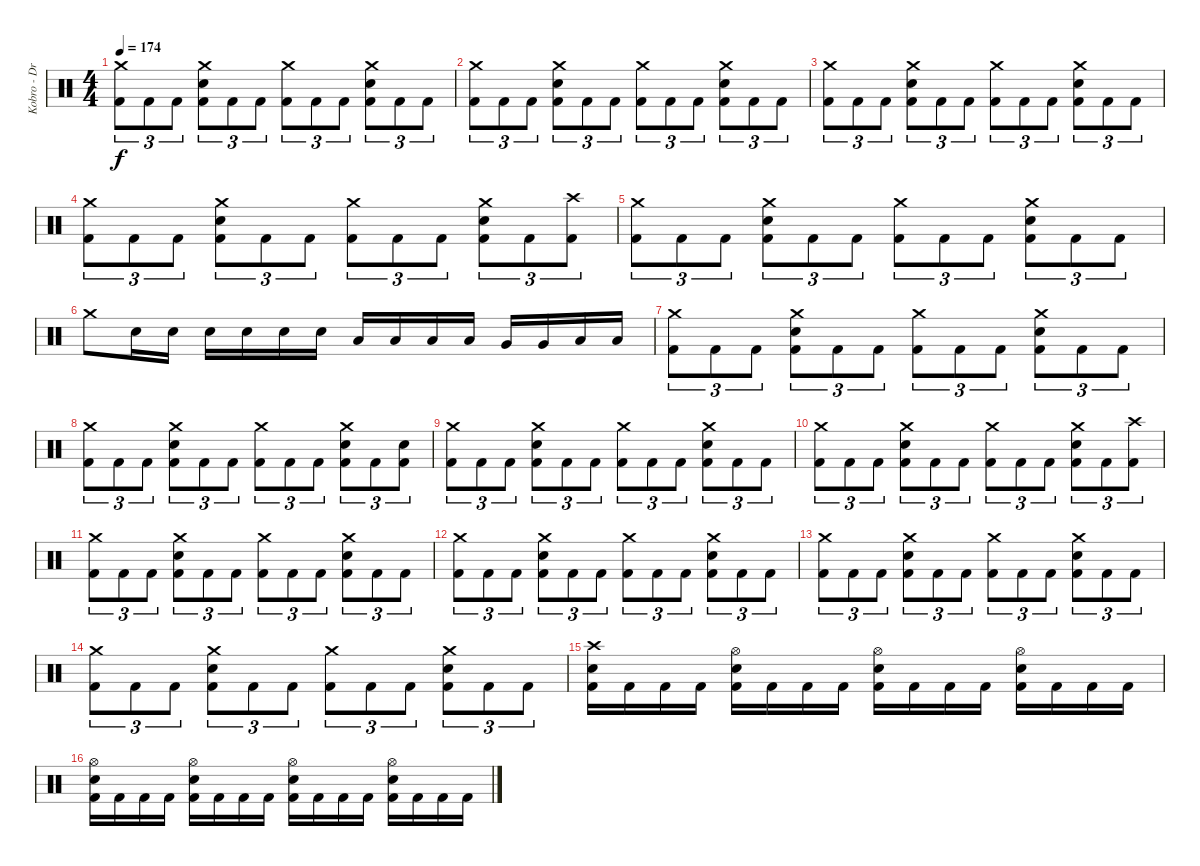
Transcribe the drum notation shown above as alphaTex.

\track ("Kobro - Drums + Percussion" "Kobro - Dr") {instrument percussion}
\staff {score}
\articulation defaults
\ts (4 4)
\tempo 174
\clef neutral
\ks c
("Crash medium (hit)" "Kick (hit) 2").8{tu (3 2) dy f} "Kick (hit) 2".8{tu (3 2)} "Kick (hit) 2".8{tu (3 2)} ("Crash medium (hit)" "Electric Snare (hit)" "Kick (hit) 2").8{tu (3 2)} "Kick (hit) 2".8{tu (3 2)} "Kick (hit) 2".8{tu (3 2)} ("Crash medium (hit)" "Kick (hit) 2").8{tu (3 2)} "Kick (hit) 2".8{tu (3 2)} "Kick (hit) 2".8{tu (3 2)} ("Crash medium (hit)" "Electric Snare (hit)" "Kick (hit) 2").8{tu (3 2)} "Kick (hit) 2".8{tu (3 2)} "Kick (hit) 2".8{tu (3 2)} |
("Crash medium (hit)" "Kick (hit) 2").8{tu (3 2)} "Kick (hit) 2".8{tu (3 2)} "Kick (hit) 2".8{tu (3 2)} ("Crash medium (hit)" "Electric Snare (hit)" "Kick (hit) 2").8{tu (3 2)} "Kick (hit) 2".8{tu (3 2)} "Kick (hit) 2".8{tu (3 2)} ("Crash medium (hit)" "Kick (hit) 2").8{tu (3 2)} "Kick (hit) 2".8{tu (3 2)} "Kick (hit) 2".8{tu (3 2)} ("Crash medium (hit)" "Electric Snare (hit)" "Kick (hit) 2").8{tu (3 2)} "Kick (hit) 2".8{tu (3 2)} "Kick (hit) 2".8{tu (3 2)} |
("Crash medium (hit)" "Kick (hit) 2").8{tu (3 2)} "Kick (hit) 2".8{tu (3 2)} "Kick (hit) 2".8{tu (3 2)} ("Crash medium (hit)" "Electric Snare (hit)" "Kick (hit) 2").8{tu (3 2)} "Kick (hit) 2".8{tu (3 2)} "Kick (hit) 2".8{tu (3 2)} ("Crash medium (hit)" "Kick (hit) 2").8{tu (3 2)} "Kick (hit) 2".8{tu (3 2)} "Kick (hit) 2".8{tu (3 2)} ("Crash medium (hit)" "Electric Snare (hit)" "Kick (hit) 2").8{tu (3 2)} "Kick (hit) 2".8{tu (3 2)} "Kick (hit) 2".8{tu (3 2)} |
("Crash medium (hit)" "Kick (hit) 2").8{tu (3 2)} "Kick (hit) 2".8{tu (3 2)} "Kick (hit) 2".8{tu (3 2)} ("Crash medium (hit)" "Electric Snare (hit)" "Kick (hit) 2").8{tu (3 2)} "Kick (hit) 2".8{tu (3 2)} "Kick (hit) 2".8{tu (3 2)} ("Crash medium (hit)" "Kick (hit) 2").8{tu (3 2)} "Kick (hit) 2".8{tu (3 2)} "Kick (hit) 2".8{tu (3 2)} ("Crash medium (hit)" "Electric Snare (hit)" "Kick (hit) 2").8{tu (3 2)} "Kick (hit) 2".8{tu (3 2)} ("Crash high (hit)" "Kick (hit) 2").8{tu (3 2)} |
("Crash medium (hit)" "Kick (hit) 2").8{tu (3 2)} "Kick (hit) 2".8{tu (3 2)} "Kick (hit) 2".8{tu (3 2)} ("Crash medium (hit)" "Electric Snare (hit)" "Kick (hit) 2").8{tu (3 2)} "Kick (hit) 2".8{tu (3 2)} "Kick (hit) 2".8{tu (3 2)} ("Crash medium (hit)" "Kick (hit) 2").8{tu (3 2)} "Kick (hit) 2".8{tu (3 2)} "Kick (hit) 2".8{tu (3 2)} ("Crash medium (hit)" "Electric Snare (hit)" "Kick (hit) 2").8{tu (3 2)} "Kick (hit) 2".8{tu (3 2)} "Kick (hit) 2".8{tu (3 2)} |
"Crash medium (hit)".8 "Electric Snare (hit)".16 "Electric Snare (hit)".16 "Electric Snare (hit)".16 "Electric Snare (hit)".16 "Electric Snare (hit)".16 "Electric Snare (hit)".16 "Low Tom (hit)".16 "Low Tom (hit)".16 "Low Tom (hit)".16 "Low Tom (hit)".16 "Very Low Tom (hit)".16 "Very Low Tom (hit)".16 "Low Floor Tom (hit)".16 "Low Floor Tom (hit)".16 |
("Crash medium (hit)" "Kick (hit) 2").8{tu (3 2)} "Kick (hit) 2".8{tu (3 2)} "Kick (hit) 2".8{tu (3 2)} ("Crash medium (hit)" "Electric Snare (hit)" "Kick (hit) 2").8{tu (3 2)} "Kick (hit) 2".8{tu (3 2)} "Kick (hit) 2".8{tu (3 2)} ("Crash medium (hit)" "Kick (hit) 2").8{tu (3 2)} "Kick (hit) 2".8{tu (3 2)} "Kick (hit) 2".8{tu (3 2)} ("Crash medium (hit)" "Electric Snare (hit)" "Kick (hit) 2").8{tu (3 2)} "Kick (hit) 2".8{tu (3 2)} "Kick (hit) 2".8{tu (3 2)} |
("Crash medium (hit)" "Kick (hit) 2").8{tu (3 2)} "Kick (hit) 2".8{tu (3 2)} "Kick (hit) 2".8{tu (3 2)} ("Crash medium (hit)" "Electric Snare (hit)" "Kick (hit) 2").8{tu (3 2)} "Kick (hit) 2".8{tu (3 2)} "Kick (hit) 2".8{tu (3 2)} ("Crash medium (hit)" "Kick (hit) 2").8{tu (3 2)} "Kick (hit) 2".8{tu (3 2)} "Kick (hit) 2".8{tu (3 2)} ("Crash medium (hit)" "Electric Snare (hit)" "Kick (hit) 2").8{tu (3 2)} "Kick (hit) 2".8{tu (3 2)} ("Electric Snare (hit)" "Kick (hit) 2").8{tu (3 2)} |
("Crash medium (hit)" "Kick (hit) 2").8{tu (3 2)} "Kick (hit) 2".8{tu (3 2)} "Kick (hit) 2".8{tu (3 2)} ("Crash medium (hit)" "Electric Snare (hit)" "Kick (hit) 2").8{tu (3 2)} "Kick (hit) 2".8{tu (3 2)} "Kick (hit) 2".8{tu (3 2)} ("Crash medium (hit)" "Kick (hit) 2").8{tu (3 2)} "Kick (hit) 2".8{tu (3 2)} "Kick (hit) 2".8{tu (3 2)} ("Crash medium (hit)" "Electric Snare (hit)" "Kick (hit) 2").8{tu (3 2)} "Kick (hit) 2".8{tu (3 2)} "Kick (hit) 2".8{tu (3 2)} |
("Crash medium (hit)" "Kick (hit) 2").8{tu (3 2)} "Kick (hit) 2".8{tu (3 2)} "Kick (hit) 2".8{tu (3 2)} ("Crash medium (hit)" "Electric Snare (hit)" "Kick (hit) 2").8{tu (3 2)} "Kick (hit) 2".8{tu (3 2)} "Kick (hit) 2".8{tu (3 2)} ("Crash medium (hit)" "Kick (hit) 2").8{tu (3 2)} "Kick (hit) 2".8{tu (3 2)} "Kick (hit) 2".8{tu (3 2)} ("Crash medium (hit)" "Electric Snare (hit)" "Kick (hit) 2").8{tu (3 2)} "Kick (hit) 2".8{tu (3 2)} ("Crash high (hit)" "Kick (hit) 2").8{tu (3 2)} |
("Crash medium (hit)" "Kick (hit) 2").8{tu (3 2)} "Kick (hit) 2".8{tu (3 2)} "Kick (hit) 2".8{tu (3 2)} ("Crash medium (hit)" "Electric Snare (hit)" "Kick (hit) 2").8{tu (3 2)} "Kick (hit) 2".8{tu (3 2)} "Kick (hit) 2".8{tu (3 2)} ("Crash medium (hit)" "Kick (hit) 2").8{tu (3 2)} "Kick (hit) 2".8{tu (3 2)} "Kick (hit) 2".8{tu (3 2)} ("Crash medium (hit)" "Electric Snare (hit)" "Kick (hit) 2").8{tu (3 2)} "Kick (hit) 2".8{tu (3 2)} "Kick (hit) 2".8{tu (3 2)} |
("Crash medium (hit)" "Kick (hit) 2").8{tu (3 2)} "Kick (hit) 2".8{tu (3 2)} "Kick (hit) 2".8{tu (3 2)} ("Crash medium (hit)" "Electric Snare (hit)" "Kick (hit) 2").8{tu (3 2)} "Kick (hit) 2".8{tu (3 2)} "Kick (hit) 2".8{tu (3 2)} ("Crash medium (hit)" "Kick (hit) 2").8{tu (3 2)} "Kick (hit) 2".8{tu (3 2)} "Kick (hit) 2".8{tu (3 2)} ("Crash medium (hit)" "Electric Snare (hit)" "Kick (hit) 2").8{tu (3 2)} "Kick (hit) 2".8{tu (3 2)} "Kick (hit) 2".8{tu (3 2)} |
("Crash medium (hit)" "Kick (hit) 2").8{tu (3 2)} "Kick (hit) 2".8{tu (3 2)} "Kick (hit) 2".8{tu (3 2)} ("Crash medium (hit)" "Electric Snare (hit)" "Kick (hit) 2").8{tu (3 2)} "Kick (hit) 2".8{tu (3 2)} "Kick (hit) 2".8{tu (3 2)} ("Crash medium (hit)" "Kick (hit) 2").8{tu (3 2)} "Kick (hit) 2".8{tu (3 2)} "Kick (hit) 2".8{tu (3 2)} ("Crash medium (hit)" "Electric Snare (hit)" "Kick (hit) 2").8{tu (3 2)} "Kick (hit) 2".8{tu (3 2)} "Kick (hit) 2".8{tu (3 2)} |
("Crash medium (hit)" "Kick (hit) 2").8{tu (3 2)} "Kick (hit) 2".8{tu (3 2)} "Kick (hit) 2".8{tu (3 2)} ("Crash medium (hit)" "Electric Snare (hit)" "Kick (hit) 2").8{tu (3 2)} "Kick (hit) 2".8{tu (3 2)} "Kick (hit) 2".8{tu (3 2)} ("Crash medium (hit)" "Kick (hit) 2").8{tu (3 2)} "Kick (hit) 2".8{tu (3 2)} "Kick (hit) 2".8{tu (3 2)} ("Crash medium (hit)" "Electric Snare (hit)" "Kick (hit) 2").8{tu (3 2)} "Kick (hit) 2".8{tu (3 2)} "Kick (hit) 2".8{tu (3 2)} |
("Crash high (hit)" "Electric Snare (hit)" "Kick (hit) 2").16 "Kick (hit) 2".16 "Kick (hit) 2".16 "Kick (hit) 2".16 ("Hi-Hat (open)" "Electric Snare (hit)" "Kick (hit) 2").16 "Kick (hit) 2".16 "Kick (hit) 2".16 "Kick (hit) 2".16 ("Hi-Hat (open)" "Electric Snare (hit)" "Kick (hit) 2").16 "Kick (hit) 2".16 "Kick (hit) 2".16 "Kick (hit) 2".16 ("Hi-Hat (open)" "Electric Snare (hit)" "Kick (hit) 2").16 "Kick (hit) 2".16 "Kick (hit) 2".16 "Kick (hit) 2".16 |
("Hi-Hat (open)" "Electric Snare (hit)" "Kick (hit) 2").16 "Kick (hit) 2".16 "Kick (hit) 2".16 "Kick (hit) 2".16 ("Hi-Hat (open)" "Electric Snare (hit)" "Kick (hit) 2").16 "Kick (hit) 2".16 "Kick (hit) 2".16 "Kick (hit) 2".16 ("Hi-Hat (open)" "Electric Snare (hit)" "Kick (hit) 2").16 "Kick (hit) 2".16 "Kick (hit) 2".16 "Kick (hit) 2".16 ("Hi-Hat (open)" "Electric Snare (hit)" "Kick (hit) 2").16 "Kick (hit) 2".16 "Kick (hit) 2".16 "Kick (hit) 2".16
